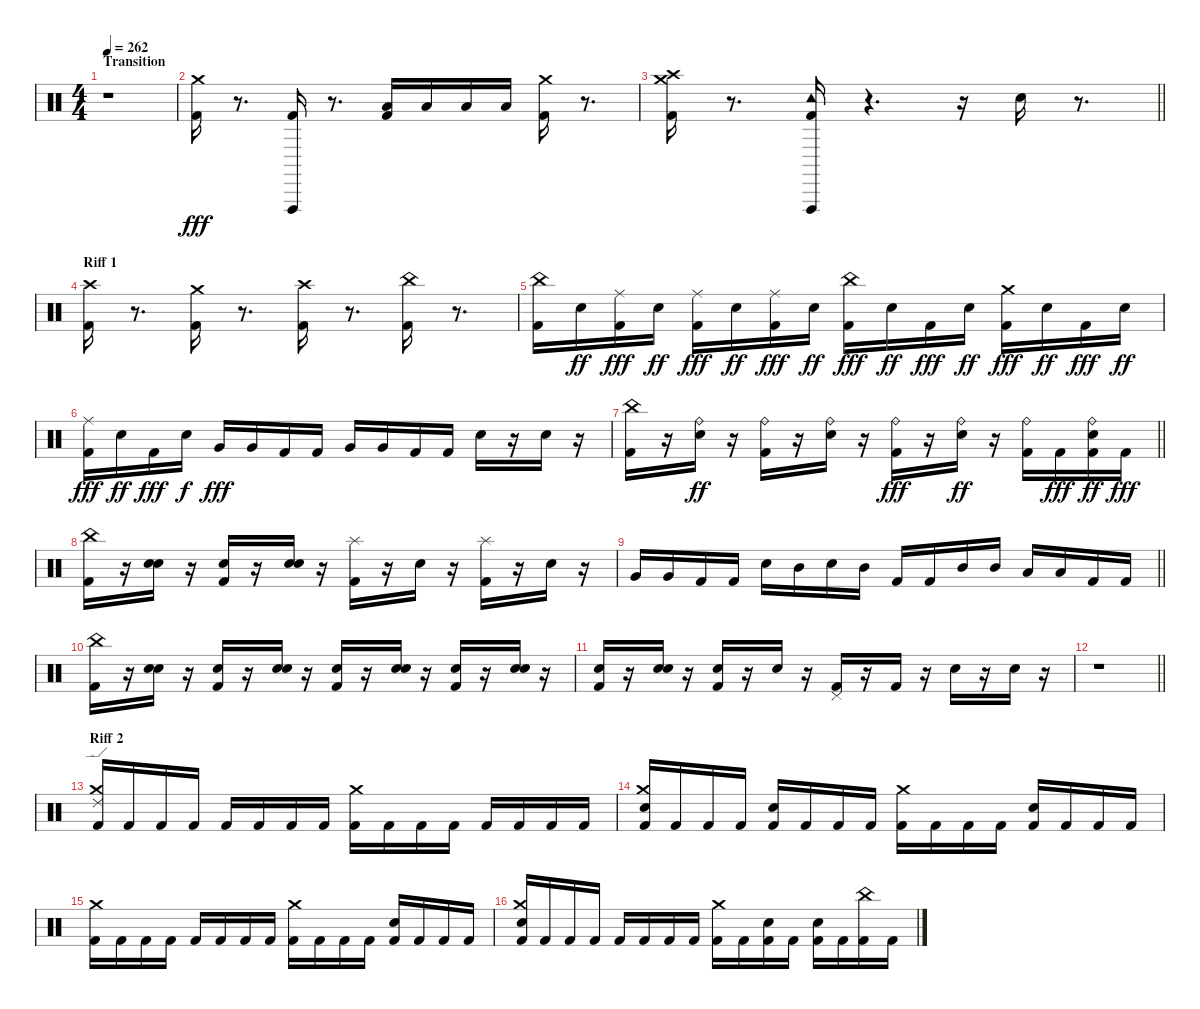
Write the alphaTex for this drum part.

\track "" {instrument percussion}
\staff {score}
\articulation defaults
\ts (4 4)
\section ("" "Transition")
\tempo 262
\clef neutral
\ks c
r.1{dy fff} |
("Kick (hit) 2" "Crash medium (hit)").16 r.8{d} ("Kick (hit) 2" "Vibraslap (hit)").16 r.8{d} ("Kick (hit) 2" "Low Tom (hit)").16 "Low Tom (hit)".16 "Low Tom (hit)".16 "Low Tom (hit)".16 ("Kick (hit) 2" "Crash medium (hit)").16 r.8{d} |
\barLineRight lightlight
("Kick (hit) 2" "Crash high (hit)" "Crash medium (hit)").16 r.8{d} ("Kick (hit) 2" "Tambourine (hit)" "Vibraslap (hit)").16 r.4{d} r.16 "Snare (hit) 2".16 r.8{d} |
\section ("" "Riff 1")
("Kick (hit) 2" "Crash high (hit)").16 r.8{d} ("Kick (hit) 2" "Crash medium (hit)").16 r.8{d} ("Kick (hit) 2" "Crash high (hit)").16 r.8{d} ("Kick (hit) 2" "China (hit)").16 r.8{d} |
("China (hit)" "Kick (hit) 2").16 "Snare (hit) 2".16{dy ff} ("Kick (hit) 2" "Ride (middle)").16{dy fff} "Snare (hit) 2".16{dy ff} ("Kick (hit) 2" "Ride (middle)").16{dy fff} "Snare (hit) 2".16{dy ff} ("Kick (hit) 2" "Ride (middle)").16{dy fff} "Snare (hit) 2".16{dy ff} ("Kick (hit) 2" "China (hit)").16{dy fff} "Snare (hit) 2".16{dy ff} "Kick (hit) 2".16{dy fff} "Snare (hit) 2".16{dy ff} ("Kick (hit) 2" "Crash medium (hit)").16{dy fff} "Snare (hit) 2".16{dy ff} "Kick (hit) 2".16{dy fff} "Snare (hit) 2".16{dy ff} |
("Kick (hit) 2" "Ride (middle)").16{dy fff} "Snare (hit) 2".16{dy ff} "Kick (hit) 2".16{dy fff} "Snare (hit) 2".16{dy f} "Very Low Tom (hit)".16{dy fff} "Very Low Tom (hit)".16 "Kick (hit) 2".16 "Kick (hit) 2".16 "Very Low Tom (hit)".16 "Very Low Tom (hit)".16 "Kick (hit) 2".16 "Kick (hit) 2".16 "Snare (hit) 2".16 r.16 "Snare (hit) 2".16 r.16 |
\barLineRight lightlight
("Kick (hit) 2" "China (hit)").16 r.16 ("Snare (hit) 2" "Ride (bell)").16{dy ff} r.16 ("Kick (hit) 2" "Ride (bell)").16 r.16 ("Snare (hit) 2" "Ride (bell)").16 r.16 ("Kick (hit) 2" "Ride (bell)").16{dy fff} r.16 ("Snare (hit) 2" "Ride (bell)").16{dy ff} r.16 ("Kick (hit) 2" "Ride (bell)").16 "Kick (hit) 2".16{dy fff} ("Kick (hit) 2" "Snare (hit) 2" "Ride (bell)").16{dy ff} "Kick (hit) 2".16{dy fff} |
\section ("" "")
("Kick (hit) 2" "China (hit)").16 r.16 ("Snare (hit)" "Snare (hit) 2").16 r.16 ("Snare (hit)" "Kick (hit) 2").16 r.16 ("Snare (hit)" "Snare (hit) 2").16 r.16 ("Kick (hit) 2" "Splash (hit)").16 r.16 "Snare (hit) 2".16 r.16 ("Kick (hit) 2" "Splash (hit)").16 r.16 "Snare (hit) 2".16 r.16 |
\barLineRight lightlight "Very Low Tom (hit)".16 "Very Low Tom (hit)".16 "Kick (hit) 2".16 "Kick (hit) 2".16 "Snare (hit) 2".16 "Mid Tom (hit)".16 "Snare (hit) 2".16 "Mid Tom (hit)".16 "Kick (hit) 2".16 "Kick (hit) 2".16 "Mid Tom (hit)".16 "Mid Tom (hit)".16 "Low Tom (hit)".16 "Low Tom (hit)".16 "Kick (hit) 2".16 "Kick (hit) 2".16
|
\section ("" "")
("Kick (hit) 2" "China (hit)").16 r.16 ("Snare (hit)" "Snare (hit) 2").16 r.16 ("Snare (hit)" "Kick (hit) 2").16 r.16 ("Snare (hit)" "Snare (hit) 2").16 r.16 ("Snare (hit)" "Kick (hit) 2").16 r.16 ("Snare (hit)" "Snare (hit) 2").16 r.16 ("Snare (hit)" "Kick (hit) 2").16 r.16 ("Snare (hit)" "Snare (hit) 2").16 r.16 |
("Snare (hit)" "Kick (hit) 2").16 r.16 ("Snare (hit)" "Snare (hit) 2").16 r.16 ("Snare (hit)" "Kick (hit) 2").16 r.16 "Snare (hit) 2".16 r.16 ("Kick (hit) 2" "Pedal Hi-Hat (hit)").16 r.16 "Kick (hit) 2".16 r.16 "Snare (hit) 2".16 r.16 "Snare (hit) 2".16 r.16 |
\barLineRight lightlight
r.1 |
\section ("" "Riff 2")
("Kick (hit) 2" "Crash medium (hit)" "Ride (edge) 2").16 "Kick (hit) 2".16 "Kick (hit) 2".16 "Kick (hit) 2".16 "Kick (hit) 2".16 "Kick (hit) 2".16 "Kick (hit) 2".16 "Kick (hit) 2".16 ("Kick (hit) 2" "Crash medium (hit)").16 "Kick (hit) 2".16 "Kick (hit) 2".16 "Kick (hit) 2".16 "Kick (hit) 2".16 "Kick (hit) 2".16 "Kick (hit) 2".16 "Kick (hit) 2".16 |
("Kick (hit) 2" "Snare (hit) 2" "Crash medium (hit)").16 "Kick (hit) 2".16 "Kick (hit) 2".16 "Kick (hit) 2".16 ("Kick (hit) 2" "Snare (hit) 2").16 "Kick (hit) 2".16 "Kick (hit) 2".16 "Kick (hit) 2".16 ("Kick (hit) 2" "Crash medium (hit)").16 "Kick (hit) 2".16 "Kick (hit) 2".16 "Kick (hit) 2".16 ("Kick (hit) 2" "Snare (hit)").16 "Kick (hit) 2".16 "Kick (hit) 2".16 "Kick (hit) 2".16 |
("Kick (hit) 2" "Crash medium (hit)").16 "Kick (hit) 2".16 "Kick (hit) 2".16 "Kick (hit) 2".16 "Kick (hit) 2".16 "Kick (hit) 2".16 "Kick (hit) 2".16 "Kick (hit) 2".16 ("Kick (hit) 2" "Crash medium (hit)").16 "Kick (hit) 2".16 "Kick (hit) 2".16 "Kick (hit) 2".16 ("Kick (hit) 2" "Snare (hit)").16 "Kick (hit) 2".16 "Kick (hit) 2".16 "Kick (hit) 2".16 |
("Kick (hit) 2" "Crash medium (hit)" "Hand Clap (hit)").16 "Kick (hit) 2".16 "Kick (hit) 2".16 "Kick (hit) 2".16 "Kick (hit) 2".16 "Kick (hit) 2".16 "Kick (hit) 2".16 "Kick (hit) 2".16 ("Kick (hit) 2" "Crash medium (hit)").16 "Kick (hit) 2".16 ("Kick (hit) 2" "Snare (hit) 2").16 "Kick (hit) 2".16 ("Kick (hit) 2" "Snare (hit) 2").16 "Kick (hit) 2".16 ("Kick (hit) 2" "China (hit)").16 "Kick (hit) 2".16
